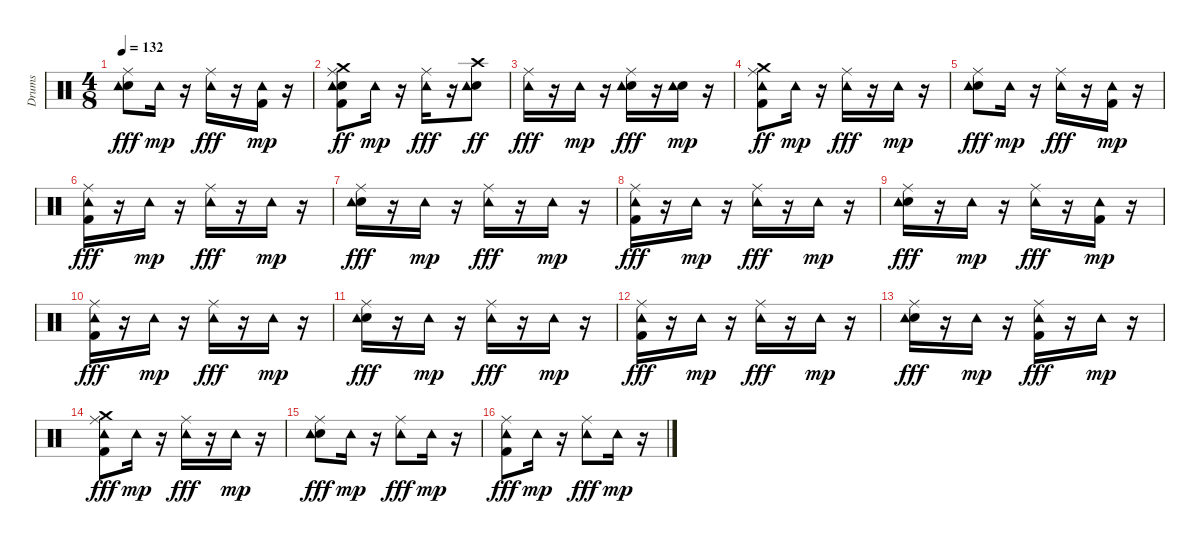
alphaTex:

\track ("Drums" "Drums") {instrument percussion}
\staff {score}
\articulation defaults
\ts (4 8)
\tempo 132
\clef neutral
\ks c
("Snare (hit) 2" "Ride (middle)" "Tambourine (hit)").8{dy fff} "Tambourine (hit)".16{dy mp} r.16 ("Ride (middle)" "Tambourine (hit)").16{dy fff} r.16 ("Kick (hit) 2" "Tambourine (hit)").16{dy mp} r.16 |
("Kick (hit) 2" "Snare (hit) 2" "Ride (middle)" "Tambourine (hit)" "Crash medium (hit)").8{dy ff} "Tambourine (hit)".16{dy mp} r.16 ("Ride (middle)" "Tambourine (hit)").16{dy fff} r.16 ("Snare (hit) 2" "Tambourine (hit)" "Crash high (hit)").8{dy ff} |
("Ride (middle)" "Tambourine (hit)").16{dy fff} r.16 "Tambourine (hit)".16{dy mp} r.16 ("Snare (hit) 2" "Ride (middle)" "Tambourine (hit)").16{dy fff} r.16 ("Snare (hit) 2" "Tambourine (hit)").16{dy mp} r.16 |
("Kick (hit) 2" "Ride (middle)" "Tambourine (hit)" "Crash medium (hit)").8{dy ff} "Tambourine (hit)".16{dy mp} r.16 ("Ride (middle)" "Tambourine (hit)").16{dy fff} r.16 "Tambourine (hit)".16{dy mp} r.16 |
("Snare (hit) 2" "Ride (middle)" "Tambourine (hit)").8{dy fff} "Tambourine (hit)".16{dy mp} r.16 ("Ride (middle)" "Tambourine (hit)").16{dy fff} r.16 ("Kick (hit) 2" "Tambourine (hit)").16{dy mp} r.16 |
("Kick (hit) 2" "Ride (middle)" "Tambourine (hit)").16{dy fff} r.16 "Tambourine (hit)".16{dy mp} r.16 ("Ride (middle)" "Tambourine (hit)").16{dy fff} r.16 "Tambourine (hit)".16{dy mp} r.16 |
("Snare (hit) 2" "Ride (middle)" "Tambourine (hit)").16{dy fff} r.16 "Tambourine (hit)".16{dy mp} r.16 ("Ride (middle)" "Tambourine (hit)").16{dy fff} r.16 "Tambourine (hit)".16{dy mp} r.16 |
("Kick (hit) 2" "Ride (middle)" "Tambourine (hit)").16{dy fff} r.16 "Tambourine (hit)".16{dy mp} r.16 ("Ride (middle)" "Tambourine (hit)").16{dy fff} r.16 "Tambourine (hit)".16{dy mp} r.16 |
("Snare (hit) 2" "Ride (middle)" "Tambourine (hit)").16{dy fff} r.16 "Tambourine (hit)".16{dy mp} r.16 ("Ride (middle)" "Tambourine (hit)").16{dy fff} r.16 ("Kick (hit) 2" "Tambourine (hit)").16{dy mp} r.16 |
("Kick (hit) 2" "Ride (middle)" "Tambourine (hit)").16{dy fff} r.16 "Tambourine (hit)".16{dy mp} r.16 ("Ride (middle)" "Tambourine (hit)").16{dy fff} r.16 "Tambourine (hit)".16{dy mp} r.16 |
("Snare (hit) 2" "Ride (middle)" "Tambourine (hit)").16{dy fff} r.16 "Tambourine (hit)".16{dy mp} r.16 ("Ride (middle)" "Tambourine (hit)").16{dy fff} r.16 "Tambourine (hit)".16{dy mp} r.16 |
("Kick (hit) 2" "Ride (middle)" "Tambourine (hit)").16{dy fff} r.16 "Tambourine (hit)".16{dy mp} r.16 ("Ride (middle)" "Tambourine (hit)").16{dy fff} r.16 "Tambourine (hit)".16{dy mp} r.16 |
("Snare (hit) 2" "Ride (middle)" "Tambourine (hit)").16{dy fff} r.16 "Tambourine (hit)".16{dy mp} r.16 ("Kick (hit) 2" "Ride (middle)" "Tambourine (hit)").16{dy fff} r.16 "Tambourine (hit)".16{dy mp} r.16 |
("Kick (hit) 2" "Ride (middle)" "Tambourine (hit)" "Crash medium (hit)").8{dy fff} "Tambourine (hit)".16{dy mp} r.16 ("Ride (middle)" "Tambourine (hit)").16{dy fff} r.16 "Tambourine (hit)".16{dy mp} r.16 |
("Snare (hit) 2" "Ride (middle)" "Tambourine (hit)").8{dy fff} "Tambourine (hit)".16{dy mp} r.16 ("Ride (middle)" "Tambourine (hit)").8{dy fff} "Tambourine (hit)".16{dy mp} r.16 |
("Kick (hit) 2" "Ride (middle)" "Tambourine (hit)").8{dy fff} "Tambourine (hit)".16{dy mp} r.16 ("Ride (middle)" "Tambourine (hit)").8{dy fff} "Tambourine (hit)".16{dy mp} r.16
